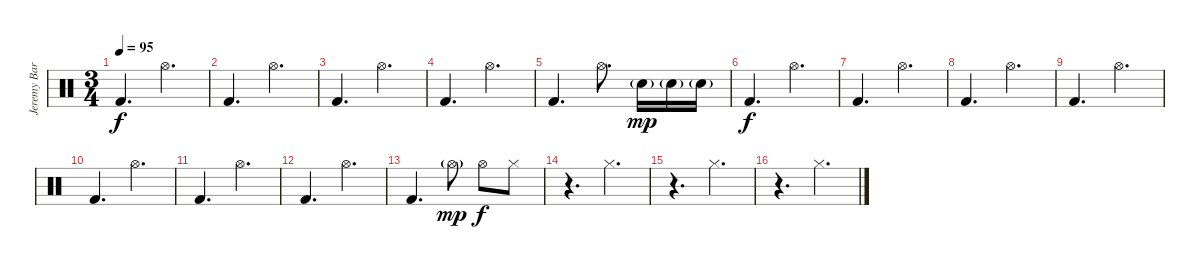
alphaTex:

\track ("Jeremy Barnes - Drums" "Jeremy Bar") {instrument percussion}
\staff {score}
\articulation defaults
\ts (3 4)
\tempo 95
\clef neutral
\ks c "Kick (hit) 2".4{d dy f} "Hi-Hat (open)".4{d}
|
"Kick (hit) 2".4{d} "Hi-Hat (open)".4{d} |
"Kick (hit) 2".4{d} "Hi-Hat (open)".4{d} |
"Kick (hit) 2".4{d} "Hi-Hat (open)".4{d} |
"Kick (hit) 2".4{d} "Hi-Hat (open)".8{d} "Electric Snare (hit)"{g}.16{dy mp} "Electric Snare (hit)"{g}.16 "Electric Snare (hit)"{g}.16 |
"Kick (hit) 2".4{d dy f} "Hi-Hat (open)".4{d} |
"Kick (hit) 2".4{d} "Hi-Hat (open)".4{d} |
"Kick (hit) 2".4{d} "Hi-Hat (open)".4{d} |
"Kick (hit) 2".4{d} "Hi-Hat (open)".4{d} |
"Kick (hit) 2".4{d} "Hi-Hat (open)".4{d} |
"Kick (hit) 2".4{d} "Hi-Hat (open)".4{d} |
"Kick (hit) 2".4{d} "Hi-Hat (open)".4{d} |
"Kick (hit) 2".4{d} "Hi-Hat (open)"{g}.8{dy mp} "Hi-Hat (open)".8{dy f} "Hi-Hat (closed)".8 |
r.4{d} "Hi-Hat (closed)".4{d} |
r.4{d} "Hi-Hat (closed)".4{d} |
r.4{d} "Hi-Hat (closed)".4{d}
